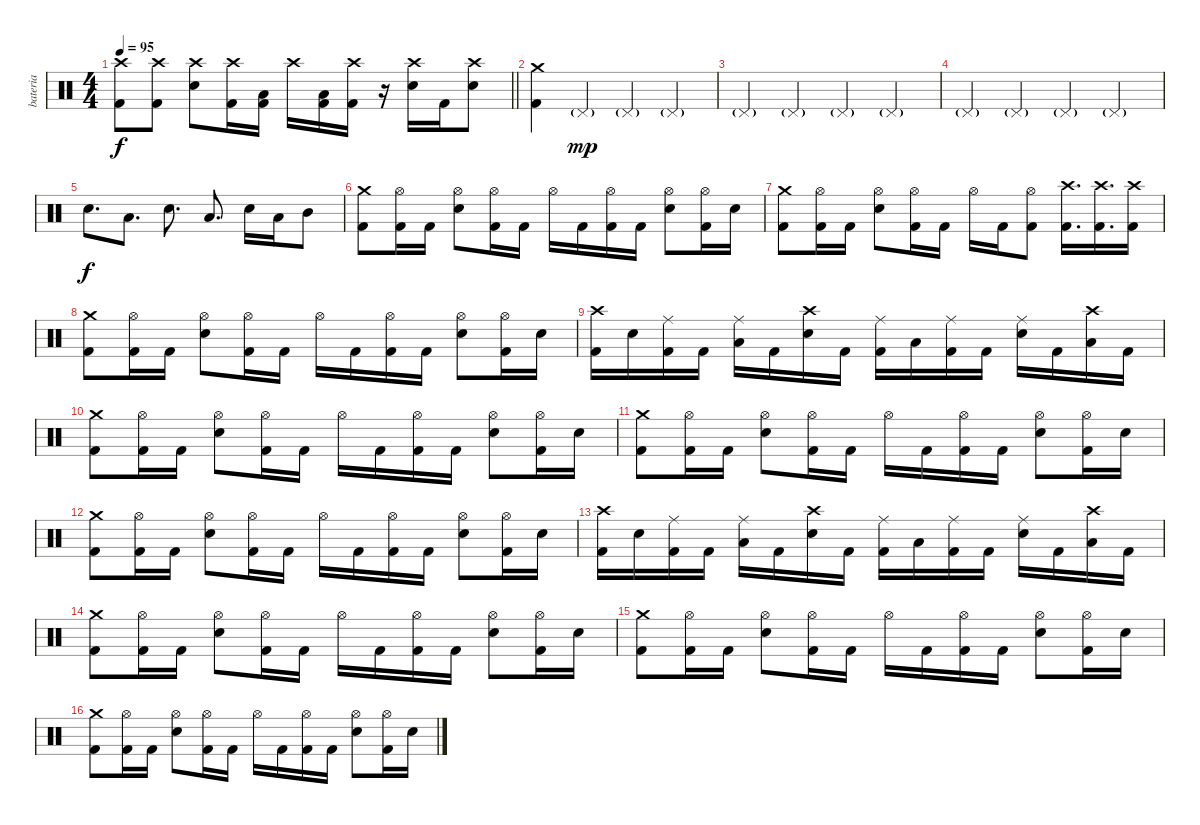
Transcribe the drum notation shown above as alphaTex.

\track ("bateria" "bateria") {instrument percussion}
\staff {score}
\articulation defaults
\ts (4 4)
\tempo 95
\clef neutral
\barLineRight lightlight
\ks c
("Crash high (hit)" "Kick (hit) 2").8{dy f} ("Crash high (hit)" "Kick (hit) 2").8 ("Crash high (hit)" "Electric Snare (hit)").8 ("Crash high (hit)" "Kick (hit) 2").16 ("Low Tom (hit)" "Kick (hit) 2").16 "Crash high (hit)".16 ("Low Tom (hit)" "Kick (hit) 2").16 ("Crash high (hit)" "Kick (hit) 2").16 r.16 ("Crash high (hit)" "Electric Snare (hit)").16 "Kick (hit) 2".16 ("Crash high (hit)" "Electric Snare (hit)").8 |
("Crash medium (hit)" "Kick (hit) 2").4 "Pedal Hi-Hat (hit)"{g}.4{dy mp} "Pedal Hi-Hat (hit)"{g}.4 "Pedal Hi-Hat (hit)"{g}.4 |
"Pedal Hi-Hat (hit)"{g}.4 "Pedal Hi-Hat (hit)"{g}.4 "Pedal Hi-Hat (hit)"{g}.4 "Pedal Hi-Hat (hit)"{g}.4 |
"Pedal Hi-Hat (hit)"{g}.4 "Pedal Hi-Hat (hit)"{g}.4 "Pedal Hi-Hat (hit)"{g}.4 "Pedal Hi-Hat (hit)"{g}.4 |
"Electric Snare (hit)".8{d dy f} "Low Tom (hit)".8{d} "Electric Snare (hit)".8{d} "Low Tom (hit)".8{d} "Electric Snare (hit)".16 "Low Tom (hit)".16 "Mid Tom (hit)".8 |
("Crash medium (hit)" "Kick (hit) 2").8 ("Hi-Hat (open)" "Kick (hit) 2").16 "Kick (hit) 2".16 ("Hi-Hat (open)" "Electric Snare (hit)").8 ("Hi-Hat (open)" "Kick (hit) 2").16 "Kick (hit) 2".16 "Hi-Hat (open)".16 "Kick (hit) 2".16 ("Hi-Hat (open)" "Kick (hit) 2").16 "Kick (hit) 2".16 ("Hi-Hat (open)" "Electric Snare (hit)").8 ("Hi-Hat (open)" "Kick (hit) 2").16 "Electric Snare (hit)".16 |
("Crash medium (hit)" "Kick (hit) 2").8 ("Hi-Hat (open)" "Kick (hit) 2").16 "Kick (hit) 2".16 ("Hi-Hat (open)" "Electric Snare (hit)").8 ("Hi-Hat (open)" "Kick (hit) 2").16 "Kick (hit) 2".16 "Hi-Hat (open)".16 "Kick (hit) 2".16 ("Hi-Hat (open)" "Kick (hit) 2").8 ("Crash high (hit)" "Kick (hit) 2").16{d} ("Crash high (hit)" "Kick (hit) 2").16{d} ("Crash high (hit)" "Kick (hit) 2").16 |
("Crash medium (hit)" "Kick (hit) 2").8 ("Hi-Hat (open)" "Kick (hit) 2").16 "Kick (hit) 2".16 ("Hi-Hat (open)" "Electric Snare (hit)").8 ("Hi-Hat (open)" "Kick (hit) 2").16 "Kick (hit) 2".16 "Hi-Hat (open)".16 "Kick (hit) 2".16 ("Hi-Hat (open)" "Kick (hit) 2").16 "Kick (hit) 2".16 ("Hi-Hat (open)" "Electric Snare (hit)").8 ("Hi-Hat (open)" "Kick (hit) 2").16 "Electric Snare (hit)".16 |
("Crash high (hit)" "Kick (hit) 2").16 "Electric Snare (hit)".16 ("Ride (middle)" "Kick (hit) 2").16 "Kick (hit) 2".16 ("Ride (middle)" "Low Tom (hit)").16 "Kick (hit) 2".16 ("Crash high (hit)" "Electric Snare (hit)").16 "Kick (hit) 2".16 ("Ride (middle)" "Kick (hit) 2").16 "Low Tom (hit)".16 ("Ride (middle)" "Kick (hit) 2").16 "Kick (hit) 2".16 ("Ride (middle)" "Electric Snare (hit)").16 "Kick (hit) 2".16 ("Crash high (hit)" "Low Tom (hit)").16 "Kick (hit) 2".16 |
("Crash medium (hit)" "Kick (hit) 2").8 ("Hi-Hat (open)" "Kick (hit) 2").16 "Kick (hit) 2".16 ("Hi-Hat (open)" "Electric Snare (hit)").8 ("Hi-Hat (open)" "Kick (hit) 2").16 "Kick (hit) 2".16 "Hi-Hat (open)".16 "Kick (hit) 2".16 ("Hi-Hat (open)" "Kick (hit) 2").16 "Kick (hit) 2".16 ("Hi-Hat (open)" "Electric Snare (hit)").8 ("Hi-Hat (open)" "Kick (hit) 2").16 "Electric Snare (hit)".16 |
("Crash medium (hit)" "Kick (hit) 2").8 ("Hi-Hat (open)" "Kick (hit) 2").16 "Kick (hit) 2".16 ("Hi-Hat (open)" "Electric Snare (hit)").8 ("Hi-Hat (open)" "Kick (hit) 2").16 "Kick (hit) 2".16 "Hi-Hat (open)".16 "Kick (hit) 2".16 ("Hi-Hat (open)" "Kick (hit) 2").16 "Kick (hit) 2".16 ("Hi-Hat (open)" "Electric Snare (hit)").8 ("Hi-Hat (open)" "Kick (hit) 2").16 "Electric Snare (hit)".16 |
("Crash medium (hit)" "Kick (hit) 2").8 ("Hi-Hat (open)" "Kick (hit) 2").16 "Kick (hit) 2".16 ("Hi-Hat (open)" "Electric Snare (hit)").8 ("Hi-Hat (open)" "Kick (hit) 2").16 "Kick (hit) 2".16 "Hi-Hat (open)".16 "Kick (hit) 2".16 ("Hi-Hat (open)" "Kick (hit) 2").16 "Kick (hit) 2".16 ("Hi-Hat (open)" "Electric Snare (hit)").8 ("Hi-Hat (open)" "Kick (hit) 2").16 "Electric Snare (hit)".16 |
("Crash high (hit)" "Kick (hit) 2").16 "Electric Snare (hit)".16 ("Ride (middle)" "Kick (hit) 2").16 "Kick (hit) 2".16 ("Ride (middle)" "Low Tom (hit)").16 "Kick (hit) 2".16 ("Crash high (hit)" "Electric Snare (hit)").16 "Kick (hit) 2".16 ("Ride (middle)" "Kick (hit) 2").16 "Low Tom (hit)".16 ("Ride (middle)" "Kick (hit) 2").16 "Kick (hit) 2".16 ("Ride (middle)" "Electric Snare (hit)").16 "Kick (hit) 2".16 ("Crash high (hit)" "Low Tom (hit)").16 "Kick (hit) 2".16 |
("Crash medium (hit)" "Kick (hit) 2").8 ("Hi-Hat (open)" "Kick (hit) 2").16 "Kick (hit) 2".16 ("Hi-Hat (open)" "Electric Snare (hit)").8 ("Hi-Hat (open)" "Kick (hit) 2").16 "Kick (hit) 2".16 "Hi-Hat (open)".16 "Kick (hit) 2".16 ("Hi-Hat (open)" "Kick (hit) 2").16 "Kick (hit) 2".16 ("Hi-Hat (open)" "Electric Snare (hit)").8 ("Hi-Hat (open)" "Kick (hit) 2").16 "Electric Snare (hit)".16 |
("Crash medium (hit)" "Kick (hit) 2").8 ("Hi-Hat (open)" "Kick (hit) 2").16 "Kick (hit) 2".16 ("Hi-Hat (open)" "Electric Snare (hit)").8 ("Hi-Hat (open)" "Kick (hit) 2").16 "Kick (hit) 2".16 "Hi-Hat (open)".16 "Kick (hit) 2".16 ("Hi-Hat (open)" "Kick (hit) 2").16 "Kick (hit) 2".16 ("Hi-Hat (open)" "Electric Snare (hit)").8 ("Hi-Hat (open)" "Kick (hit) 2").16 "Electric Snare (hit)".16 |
("Crash medium (hit)" "Kick (hit) 2").8 ("Hi-Hat (open)" "Kick (hit) 2").16 "Kick (hit) 2".16 ("Hi-Hat (open)" "Electric Snare (hit)").8 ("Hi-Hat (open)" "Kick (hit) 2").16 "Kick (hit) 2".16 "Hi-Hat (open)".16 "Kick (hit) 2".16 ("Hi-Hat (open)" "Kick (hit) 2").16 "Kick (hit) 2".16 ("Hi-Hat (open)" "Electric Snare (hit)").8 ("Hi-Hat (open)" "Kick (hit) 2").16 "Electric Snare (hit)".16
